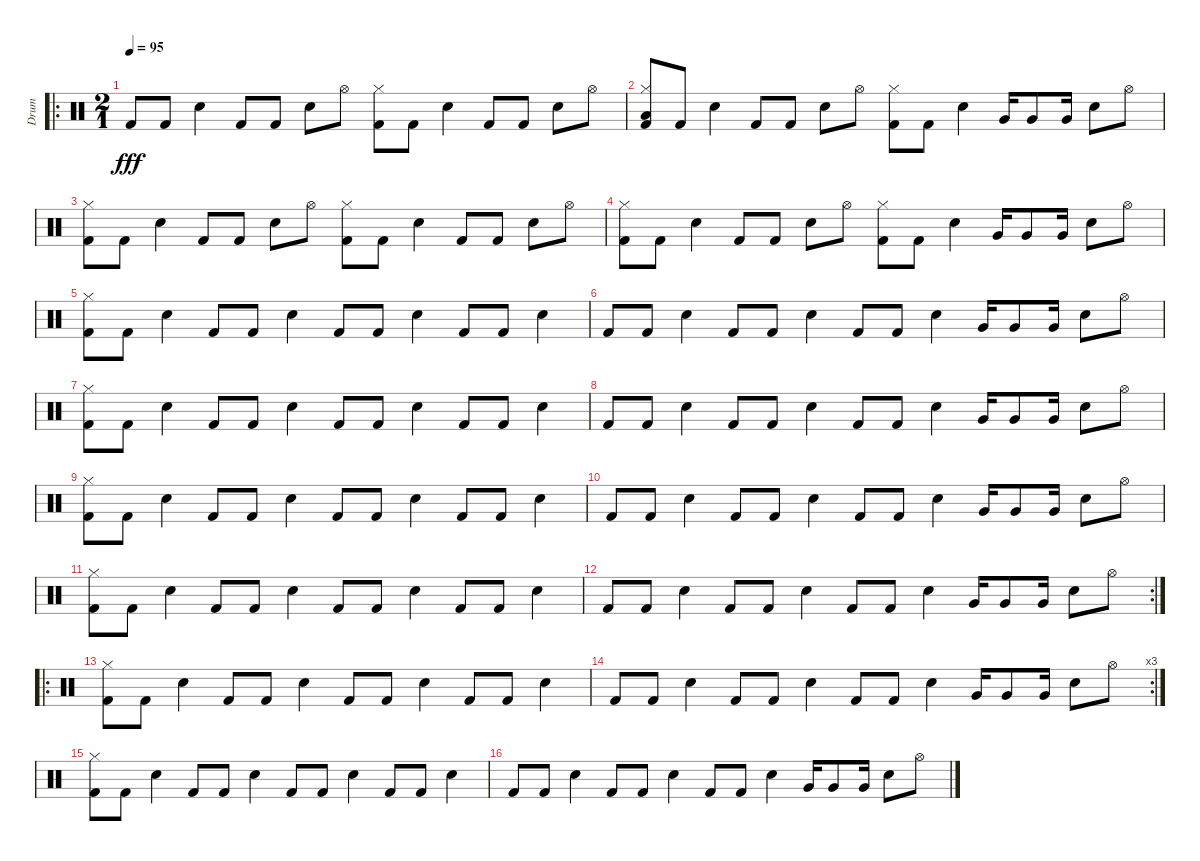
\track ("Drum" "Drum") {instrument percussion}
\staff {score}
\articulation defaults
\ro
\ts (2 1)
\tempo 95
\clef neutral
\ks c "Kick (hit) 2".8{dy fff} "Kick (hit) 2".8 "Electric Snare (hit)".4 "Kick (hit) 2".8 "Kick (hit) 2".8 "Electric Snare (hit)".8 "Hi-Hat (open)".8
("Hi-Hat (closed)" "Kick (hit) 2").8 "Kick (hit) 2".8 "Electric Snare (hit)".4 "Kick (hit) 2".8 "Kick (hit) 2".8 "Electric Snare (hit)".8 "Hi-Hat (open)".8 |
("Hi-Hat (closed)" "Low Floor Tom (hit)" "Kick (hit) 2").8 "Kick (hit) 2".8 "Electric Snare (hit)".4 "Kick (hit) 2".8 "Kick (hit) 2".8 "Electric Snare (hit)".8 "Hi-Hat (open)".8 ("Hi-Hat (closed)" "Kick (hit) 2").8 "Kick (hit) 2".8 "Electric Snare (hit)".4 "Very Low Tom (hit)".16 "Very Low Tom (hit)".8 "Very Low Tom (hit)".16 "Electric Snare (hit)".8 "Hi-Hat (open)".8 |
("Hi-Hat (closed)" "Kick (hit) 2").8 "Kick (hit) 2".8 "Electric Snare (hit)".4 "Kick (hit) 2".8 "Kick (hit) 2".8 "Electric Snare (hit)".8 "Hi-Hat (open)".8 ("Hi-Hat (closed)" "Kick (hit) 2").8 "Kick (hit) 2".8 "Electric Snare (hit)".4 "Kick (hit) 2".8 "Kick (hit) 2".8 "Electric Snare (hit)".8 "Hi-Hat (open)".8 |
("Hi-Hat (closed)" "Kick (hit) 2").8 "Kick (hit) 2".8 "Electric Snare (hit)".4 "Kick (hit) 2".8 "Kick (hit) 2".8 "Electric Snare (hit)".8 "Hi-Hat (open)".8 ("Hi-Hat (closed)" "Kick (hit) 2").8 "Kick (hit) 2".8 "Electric Snare (hit)".4 "Very Low Tom (hit)".16 "Very Low Tom (hit)".8 "Very Low Tom (hit)".16 "Electric Snare (hit)".8 "Hi-Hat (open)".8 |
("Hi-Hat (closed)" "Kick (hit) 2").8 "Kick (hit) 2".8 "Electric Snare (hit)".4 "Kick (hit) 2".8 "Kick (hit) 2".8 "Electric Snare (hit)".4 "Kick (hit) 2".8 "Kick (hit) 2".8 "Electric Snare (hit)".4 "Kick (hit) 2".8 "Kick (hit) 2".8 "Electric Snare (hit)".4 |
"Kick (hit) 2".8 "Kick (hit) 2".8 "Electric Snare (hit)".4 "Kick (hit) 2".8 "Kick (hit) 2".8 "Electric Snare (hit)".4 "Kick (hit) 2".8 "Kick (hit) 2".8 "Electric Snare (hit)".4 "Very Low Tom (hit)".16 "Very Low Tom (hit)".8 "Very Low Tom (hit)".16 "Electric Snare (hit)".8 "Hi-Hat (open)".8 |
("Hi-Hat (closed)" "Kick (hit) 2").8 "Kick (hit) 2".8 "Electric Snare (hit)".4 "Kick (hit) 2".8 "Kick (hit) 2".8 "Electric Snare (hit)".4 "Kick (hit) 2".8 "Kick (hit) 2".8 "Electric Snare (hit)".4 "Kick (hit) 2".8 "Kick (hit) 2".8 "Electric Snare (hit)".4 |
"Kick (hit) 2".8 "Kick (hit) 2".8 "Electric Snare (hit)".4 "Kick (hit) 2".8 "Kick (hit) 2".8 "Electric Snare (hit)".4 "Kick (hit) 2".8 "Kick (hit) 2".8 "Electric Snare (hit)".4 "Very Low Tom (hit)".16 "Very Low Tom (hit)".8 "Very Low Tom (hit)".16 "Electric Snare (hit)".8 "Hi-Hat (open)".8 |
("Hi-Hat (closed)" "Kick (hit) 2").8 "Kick (hit) 2".8 "Electric Snare (hit)".4 "Kick (hit) 2".8 "Kick (hit) 2".8 "Electric Snare (hit)".4 "Kick (hit) 2".8 "Kick (hit) 2".8 "Electric Snare (hit)".4 "Kick (hit) 2".8 "Kick (hit) 2".8 "Electric Snare (hit)".4 |
"Kick (hit) 2".8 "Kick (hit) 2".8 "Electric Snare (hit)".4 "Kick (hit) 2".8 "Kick (hit) 2".8 "Electric Snare (hit)".4 "Kick (hit) 2".8 "Kick (hit) 2".8 "Electric Snare (hit)".4 "Very Low Tom (hit)".16 "Very Low Tom (hit)".8 "Very Low Tom (hit)".16 "Electric Snare (hit)".8 "Hi-Hat (open)".8 |
("Hi-Hat (closed)" "Kick (hit) 2").8 "Kick (hit) 2".8 "Electric Snare (hit)".4 "Kick (hit) 2".8 "Kick (hit) 2".8 "Electric Snare (hit)".4 "Kick (hit) 2".8 "Kick (hit) 2".8 "Electric Snare (hit)".4 "Kick (hit) 2".8 "Kick (hit) 2".8 "Electric Snare (hit)".4 |
\rc 2 "Kick (hit) 2".8 "Kick (hit) 2".8 "Electric Snare (hit)".4 "Kick (hit) 2".8 "Kick (hit) 2".8 "Electric Snare (hit)".4 "Kick (hit) 2".8 "Kick (hit) 2".8 "Electric Snare (hit)".4 "Very Low Tom (hit)".16 "Very Low Tom (hit)".8 "Very Low Tom (hit)".16 "Electric Snare (hit)".8 "Hi-Hat (open)".8
|
\ro
("Hi-Hat (closed)" "Kick (hit) 2").8 "Kick (hit) 2".8 "Electric Snare (hit)".4 "Kick (hit) 2".8 "Kick (hit) 2".8 "Electric Snare (hit)".4 "Kick (hit) 2".8 "Kick (hit) 2".8 "Electric Snare (hit)".4 "Kick (hit) 2".8 "Kick (hit) 2".8 "Electric Snare (hit)".4 |
\rc 3 "Kick (hit) 2".8 "Kick (hit) 2".8 "Electric Snare (hit)".4 "Kick (hit) 2".8 "Kick (hit) 2".8 "Electric Snare (hit)".4 "Kick (hit) 2".8 "Kick (hit) 2".8 "Electric Snare (hit)".4 "Very Low Tom (hit)".16 "Very Low Tom (hit)".8 "Very Low Tom (hit)".16 "Electric Snare (hit)".8 "Hi-Hat (open)".8
|
("Hi-Hat (closed)" "Kick (hit) 2").8 "Kick (hit) 2".8 "Electric Snare (hit)".4 "Kick (hit) 2".8 "Kick (hit) 2".8 "Electric Snare (hit)".4 "Kick (hit) 2".8 "Kick (hit) 2".8 "Electric Snare (hit)".4 "Kick (hit) 2".8 "Kick (hit) 2".8 "Electric Snare (hit)".4 |
"Kick (hit) 2".8 "Kick (hit) 2".8 "Electric Snare (hit)".4 "Kick (hit) 2".8 "Kick (hit) 2".8 "Electric Snare (hit)".4 "Kick (hit) 2".8 "Kick (hit) 2".8 "Electric Snare (hit)".4 "Very Low Tom (hit)".16 "Very Low Tom (hit)".8 "Very Low Tom (hit)".16 "Electric Snare (hit)".8 "Hi-Hat (open)".8
